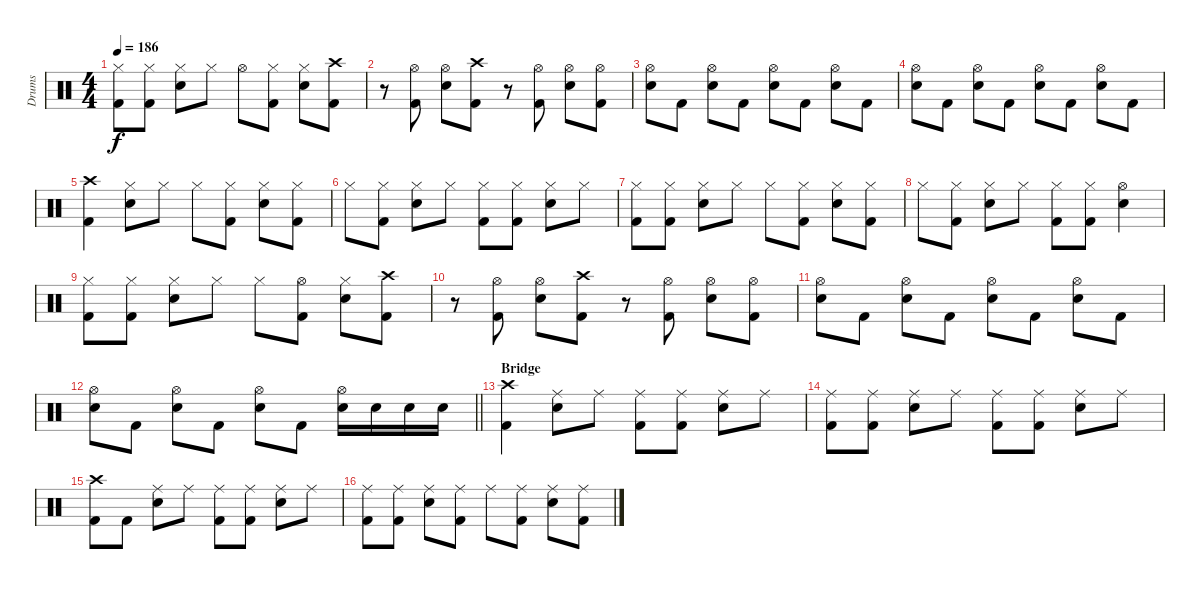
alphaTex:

\track ("Drums" "Drums") {instrument percussion}
\staff {score}
\articulation defaults
\ts (4 4)
\tempo 186
\clef neutral
\ks c
("Hi-Hat (closed)" "Kick (hit) 2").8{dy f} ("Hi-Hat (closed)" "Kick (hit) 2").8 ("Hi-Hat (closed)" "Snare (hit) 2").8 "Hi-Hat (closed)".8 "Hi-Hat (open)".8 ("Hi-Hat (closed)" "Kick (hit) 2").8 ("Hi-Hat (closed)" "Snare (hit) 2").8 ("Crash high (hit)" "Kick (hit) 2").8 |
r.8 ("Hi-Hat (open)" "Kick (hit) 2").8 ("Hi-Hat (open)" "Snare (hit) 2").8 ("Crash high (hit)" "Kick (hit) 2").8 r.8 ("Hi-Hat (open)" "Kick (hit) 2").8 ("Hi-Hat (open)" "Snare (hit) 2").8 ("Hi-Hat (open)" "Kick (hit) 2").8 |
("Hi-Hat (open)" "Snare (hit) 2").8 "Kick (hit) 2".8 ("Hi-Hat (open)" "Snare (hit) 2").8 "Kick (hit) 2".8 ("Hi-Hat (open)" "Snare (hit) 2").8 "Kick (hit) 2".8 ("Hi-Hat (open)" "Snare (hit) 2").8 "Kick (hit) 2".8 |
("Hi-Hat (open)" "Snare (hit) 2").8 "Kick (hit) 2".8 ("Hi-Hat (open)" "Snare (hit) 2").8 "Kick (hit) 2".8 ("Hi-Hat (open)" "Snare (hit) 2").8 "Kick (hit) 2".8 ("Hi-Hat (open)" "Snare (hit) 2").8 "Kick (hit) 2".8 |
("Crash high (hit)" "Kick (hit) 2").4 ("Hi-Hat (closed)" "Snare (hit) 2").8 "Hi-Hat (closed)".8 "Hi-Hat (closed)".8 ("Hi-Hat (closed)" "Kick (hit) 2").8 ("Hi-Hat (closed)" "Snare (hit) 2").8 ("Hi-Hat (closed)" "Kick (hit) 2").8 |
"Hi-Hat (closed)".8 ("Hi-Hat (closed)" "Kick (hit) 2").8 ("Hi-Hat (closed)" "Snare (hit) 2").8 "Hi-Hat (closed)".8 ("Hi-Hat (closed)" "Kick (hit) 2").8 ("Hi-Hat (closed)" "Kick (hit) 2").8 ("Hi-Hat (closed)" "Snare (hit) 2").8 "Hi-Hat (closed)".8 |
("Hi-Hat (closed)" "Kick (hit) 2").8 ("Hi-Hat (closed)" "Kick (hit) 2").8 ("Hi-Hat (closed)" "Snare (hit) 2").8 "Hi-Hat (closed)".8 "Hi-Hat (closed)".8 ("Hi-Hat (closed)" "Kick (hit) 2").8 ("Hi-Hat (closed)" "Snare (hit) 2").8 ("Hi-Hat (closed)" "Kick (hit) 2").8 |
"Hi-Hat (closed)".8 ("Hi-Hat (closed)" "Kick (hit) 2").8 ("Hi-Hat (closed)" "Snare (hit) 2").8 "Hi-Hat (closed)".8 ("Hi-Hat (closed)" "Kick (hit) 2").8 ("Hi-Hat (closed)" "Kick (hit) 2").8 ("Hi-Hat (open)" "Snare (hit) 2").4 |
("Hi-Hat (closed)" "Kick (hit) 2").8 ("Hi-Hat (closed)" "Kick (hit) 2").8 ("Hi-Hat (closed)" "Snare (hit) 2").8 "Hi-Hat (closed)".8 "Hi-Hat (closed)".8 ("Hi-Hat (open)" "Kick (hit) 2").8 ("Hi-Hat (closed)" "Snare (hit) 2").8 ("Crash high (hit)" "Kick (hit) 2").8 |
r.8 ("Hi-Hat (open)" "Kick (hit) 2").8 ("Hi-Hat (open)" "Snare (hit) 2").8 ("Crash high (hit)" "Kick (hit) 2").8 r.8 ("Hi-Hat (open)" "Kick (hit) 2").8 ("Hi-Hat (open)" "Snare (hit) 2").8 ("Hi-Hat (open)" "Kick (hit) 2").8 |
("Hi-Hat (open)" "Snare (hit) 2").8 "Kick (hit) 2".8 ("Hi-Hat (open)" "Snare (hit) 2").8 "Kick (hit) 2".8 ("Hi-Hat (open)" "Snare (hit) 2").8 "Kick (hit) 2".8 ("Hi-Hat (open)" "Snare (hit) 2").8 "Kick (hit) 2".8 |
\barLineRight lightlight
("Hi-Hat (open)" "Snare (hit) 2").8 "Kick (hit) 2".8 ("Hi-Hat (open)" "Snare (hit) 2").8 "Kick (hit) 2".8 ("Hi-Hat (open)" "Snare (hit) 2").8 "Kick (hit) 2".8 ("Hi-Hat (open)" "Snare (hit) 2").16 "Snare (hit) 2".16 "Snare (hit) 2".16 "Snare (hit) 2".16 |
\section ("" "Bridge")
("Crash high (hit)" "Kick (hit) 2").4 ("Ride (middle)" "Snare (hit) 2").8 "Ride (middle)".8 ("Ride (middle)" "Kick (hit) 2").8 ("Ride (middle)" "Kick (hit) 2").8 ("Ride (middle)" "Snare (hit) 2").8 "Ride (middle)".8 |
("Ride (middle)" "Kick (hit) 2").8 ("Ride (middle)" "Kick (hit) 2").8 ("Ride (middle)" "Snare (hit) 2").8 "Ride (middle)".8 ("Ride (middle)" "Kick (hit) 2").8 ("Ride (middle)" "Kick (hit) 2").8 ("Ride (middle)" "Snare (hit) 2").8 "Ride (middle)".8 |
("Crash high (hit)" "Kick (hit) 2").8 "Kick (hit) 2".8 ("Ride (middle)" "Snare (hit) 2").8 "Ride (middle)".8 ("Ride (middle)" "Kick (hit) 2").8 ("Ride (middle)" "Kick (hit) 2").8 ("Ride (middle)" "Snare (hit) 2").8 "Ride (middle)".8 |
("Ride (middle)" "Kick (hit) 2").8 ("Ride (middle)" "Kick (hit) 2").8 ("Ride (middle)" "Snare (hit) 2").8 ("Ride (middle)" "Kick (hit) 2").8 "Ride (middle)".8 ("Ride (middle)" "Kick (hit) 2").8 ("Ride (middle)" "Snare (hit) 2").8 ("Ride (middle)" "Kick (hit) 2").8
